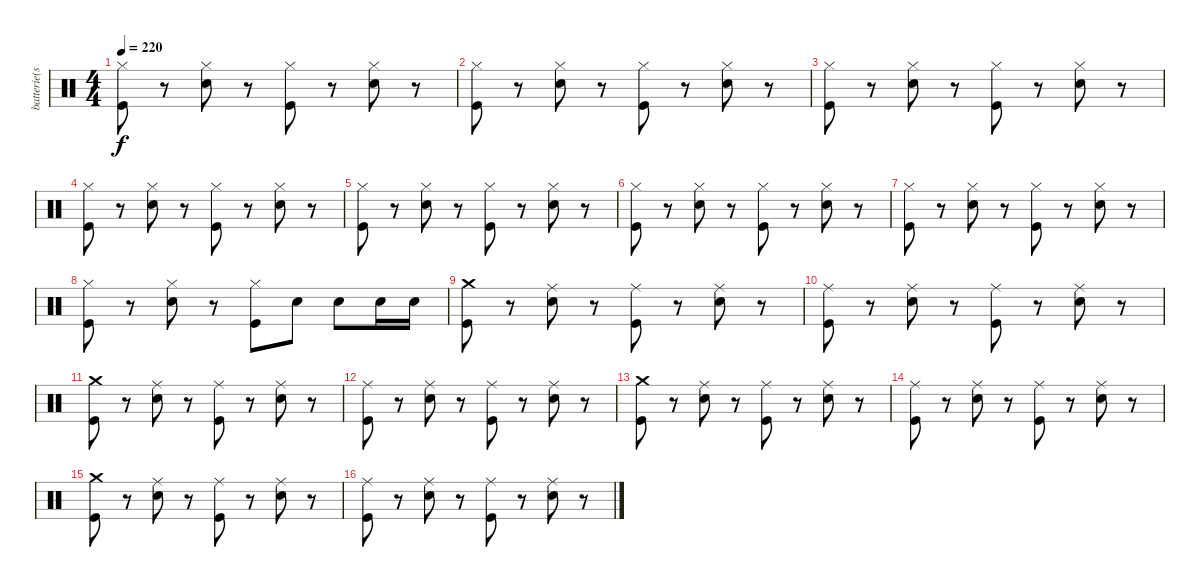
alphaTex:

\track ("batterie(scott)" "batterie(s") {instrument percussion}
\staff {score}
\articulation defaults
\ts (4 4)
\tempo 220
\clef neutral
\ks c
("Hi-Hat (closed)" "Kick (hit)").8{dy f} r.8 ("Hi-Hat (closed)" "Snare (hit) 2").8 r.8 ("Hi-Hat (closed)" "Kick (hit)").8 r.8 ("Hi-Hat (closed)" "Snare (hit) 2").8 r.8 |
("Hi-Hat (closed)" "Kick (hit)").8 r.8 ("Hi-Hat (closed)" "Snare (hit) 2").8 r.8 ("Hi-Hat (closed)" "Kick (hit)").8 r.8 ("Hi-Hat (closed)" "Snare (hit) 2").8 r.8 |
("Hi-Hat (closed)" "Kick (hit)").8 r.8 ("Hi-Hat (closed)" "Snare (hit) 2").8 r.8 ("Hi-Hat (closed)" "Kick (hit)").8 r.8 ("Hi-Hat (closed)" "Snare (hit) 2").8 r.8 |
("Hi-Hat (closed)" "Kick (hit)").8 r.8 ("Hi-Hat (closed)" "Snare (hit) 2").8 r.8 ("Hi-Hat (closed)" "Kick (hit)").8 r.8 ("Hi-Hat (closed)" "Snare (hit) 2").8 r.8 |
("Hi-Hat (closed)" "Kick (hit)").8 r.8 ("Hi-Hat (closed)" "Snare (hit) 2").8 r.8 ("Hi-Hat (closed)" "Kick (hit)").8 r.8 ("Hi-Hat (closed)" "Snare (hit) 2").8 r.8 |
("Hi-Hat (closed)" "Kick (hit)").8 r.8 ("Hi-Hat (closed)" "Snare (hit) 2").8 r.8 ("Hi-Hat (closed)" "Kick (hit)").8 r.8 ("Hi-Hat (closed)" "Snare (hit) 2").8 r.8 |
("Hi-Hat (closed)" "Kick (hit)").8 r.8 ("Hi-Hat (closed)" "Snare (hit) 2").8 r.8 ("Hi-Hat (closed)" "Kick (hit)").8 r.8 ("Hi-Hat (closed)" "Snare (hit) 2").8 r.8 |
("Hi-Hat (closed)" "Kick (hit)").8 r.8 ("Hi-Hat (closed)" "Snare (hit) 2").8 r.8 ("Hi-Hat (closed)" "Kick (hit)").8 "Snare (hit) 2".8 "Snare (hit) 2".8 "Snare (hit) 2".16 "Snare (hit) 2".16 |
("Crash medium (hit)" "Kick (hit)").8 r.8 ("Ride (middle)" "Snare (hit) 2").8 r.8 ("Ride (middle)" "Kick (hit)").8 r.8 ("Ride (middle)" "Snare (hit) 2").8 r.8 |
("Ride (middle)" "Kick (hit)").8 r.8 ("Ride (middle)" "Snare (hit) 2").8 r.8 ("Ride (middle)" "Kick (hit)").8 r.8 ("Ride (middle)" "Snare (hit) 2").8 r.8 |
("Crash medium (hit)" "Kick (hit)").8 r.8 ("Ride (middle)" "Snare (hit) 2").8 r.8 ("Ride (middle)" "Kick (hit)").8 r.8 ("Ride (middle)" "Snare (hit) 2").8 r.8 |
("Ride (middle)" "Kick (hit)").8 r.8 ("Ride (middle)" "Snare (hit) 2").8 r.8 ("Ride (middle)" "Kick (hit)").8 r.8 ("Ride (middle)" "Snare (hit) 2").8 r.8 |
("Crash medium (hit)" "Kick (hit)").8 r.8 ("Ride (middle)" "Snare (hit) 2").8 r.8 ("Ride (middle)" "Kick (hit)").8 r.8 ("Ride (middle)" "Snare (hit) 2").8 r.8 |
("Ride (middle)" "Kick (hit)").8 r.8 ("Ride (middle)" "Snare (hit) 2").8 r.8 ("Ride (middle)" "Kick (hit)").8 r.8 ("Ride (middle)" "Snare (hit) 2").8 r.8 |
("Crash medium (hit)" "Kick (hit)").8 r.8 ("Ride (middle)" "Snare (hit) 2").8 r.8 ("Ride (middle)" "Kick (hit)").8 r.8 ("Ride (middle)" "Snare (hit) 2").8 r.8 |
("Ride (middle)" "Kick (hit)").8 r.8 ("Ride (middle)" "Snare (hit) 2").8 r.8 ("Ride (middle)" "Kick (hit)").8 r.8 ("Ride (middle)" "Snare (hit) 2").8 r.8
